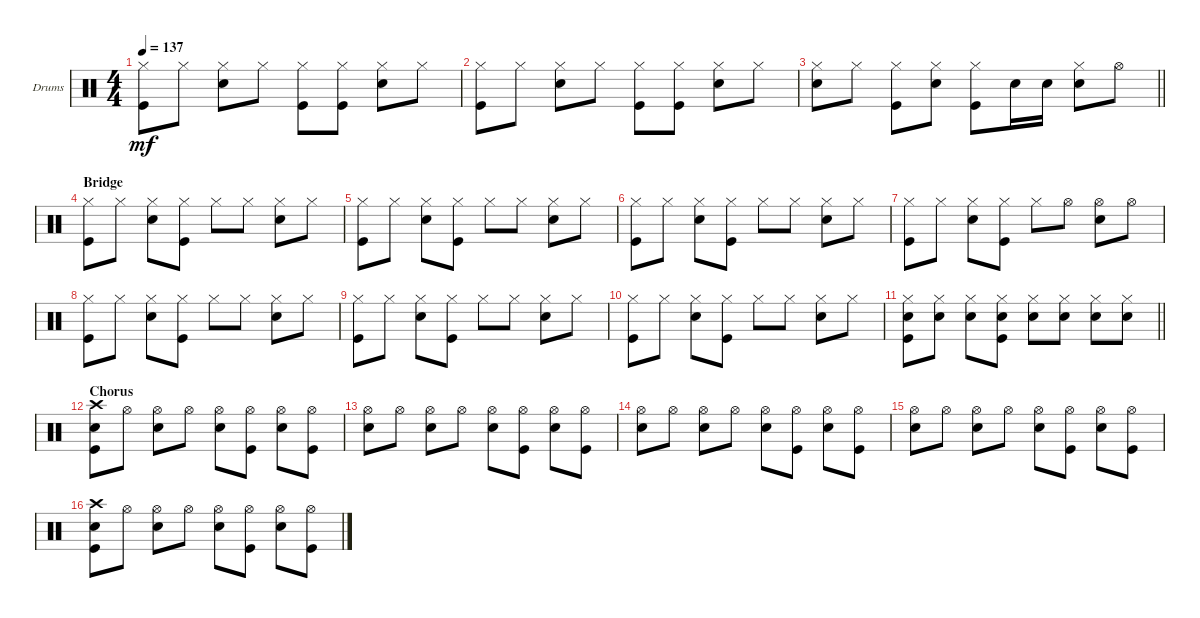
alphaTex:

\bracketExtendMode groupsimilarinstruments
\firstSystemTrackNameOrientation horizontal
\otherSystemsTrackNameOrientation horizontal
\track ("Drumkit" "Drums") {instrument percussion}
\staff {score}
\articulation defaults
\ts (4 4)
\tempo 137
\clef neutral
\scale
0.333333
\ks c
("Kick (hit)" "Hi-Hat (closed)").8{dy mf} "Hi-Hat (closed)".8 ("Snare (hit) 2" "Hi-Hat (closed)").8 "Hi-Hat (closed)".8 ("Hi-Hat (closed)" "Kick (hit)").8 ("Hi-Hat (closed)" "Kick (hit)").8 ("Hi-Hat (closed)" "Snare (hit) 2").8 "Hi-Hat (closed)".8 |
\scale
0.333333 ("Kick (hit)" "Hi-Hat (closed)").8 "Hi-Hat (closed)".8 ("Snare (hit) 2" "Hi-Hat (closed)").8 "Hi-Hat (closed)".8 ("Hi-Hat (closed)" "Kick (hit)").8 ("Hi-Hat (closed)" "Kick (hit)").8 ("Hi-Hat (closed)" "Snare (hit) 2").8 "Hi-Hat (closed)".8 |
\scale
0.333333
\barLineRight lightlight
("Snare (hit) 2" "Hi-Hat (closed)").8 "Hi-Hat (closed)".8 ("Kick (hit)" "Hi-Hat (closed)").8 ("Snare (hit) 2" "Hi-Hat (closed)").8 ("Kick (hit)" "Hi-Hat (closed)").8 "Snare (hit) 2".16 "Snare (hit) 2".16 ("Snare (hit) 2" "Hi-Hat (closed)").8 "Hi-Hat (open)".8 |
\section ("" "Bridge")
\scale
0.333333 ("Kick (hit)" "Hi-Hat (closed)").8 "Hi-Hat (closed)".8 ("Hi-Hat (closed)" "Snare (hit) 2").8 ("Hi-Hat (closed)" "Kick (hit)").8 "Hi-Hat (closed)".8 "Hi-Hat (closed)".8 ("Hi-Hat (closed)" "Snare (hit) 2").8 "Hi-Hat (closed)".8 |
\scale
0.333333 ("Kick (hit)" "Hi-Hat (closed)").8 "Hi-Hat (closed)".8 ("Hi-Hat (closed)" "Snare (hit) 2").8 ("Hi-Hat (closed)" "Kick (hit)").8 "Hi-Hat (closed)".8 "Hi-Hat (closed)".8 ("Hi-Hat (closed)" "Snare (hit) 2").8 "Hi-Hat (closed)".8 |
\scale
0.333333 ("Kick (hit)" "Hi-Hat (closed)").8 "Hi-Hat (closed)".8 ("Hi-Hat (closed)" "Snare (hit) 2").8 ("Hi-Hat (closed)" "Kick (hit)").8 "Hi-Hat (closed)".8 "Hi-Hat (closed)".8 ("Hi-Hat (closed)" "Snare (hit) 2").8 "Hi-Hat (closed)".8 |
\scale
0.333333 ("Kick (hit)" "Hi-Hat (closed)").8 "Hi-Hat (closed)".8 ("Hi-Hat (closed)" "Snare (hit) 2").8 ("Hi-Hat (closed)" "Kick (hit)").8 "Hi-Hat (closed)".8 "Hi-Hat (open)".8 ("Hi-Hat (open)" "Snare (hit) 2").8 "Hi-Hat (open)".8 |
\scale
0.333333 ("Kick (hit)" "Hi-Hat (closed)").8 "Hi-Hat (closed)".8 ("Hi-Hat (closed)" "Snare (hit) 2").8 ("Hi-Hat (closed)" "Kick (hit)").8 "Hi-Hat (closed)".8 "Hi-Hat (closed)".8 ("Hi-Hat (closed)" "Snare (hit) 2").8 "Hi-Hat (closed)".8 |
\scale
0.333333 ("Kick (hit)" "Hi-Hat (closed)").8 "Hi-Hat (closed)".8 ("Hi-Hat (closed)" "Snare (hit) 2").8 ("Hi-Hat (closed)" "Kick (hit)").8 "Hi-Hat (closed)".8 "Hi-Hat (closed)".8 ("Hi-Hat (closed)" "Snare (hit) 2").8 "Hi-Hat (closed)".8 |
\scale
0.333333 ("Kick (hit)" "Hi-Hat (closed)").8 "Hi-Hat (closed)".8 ("Hi-Hat (closed)" "Snare (hit) 2").8 ("Hi-Hat (closed)" "Kick (hit)").8 "Hi-Hat (closed)".8 "Hi-Hat (closed)".8 ("Hi-Hat (closed)" "Snare (hit) 2").8 "Hi-Hat (closed)".8 |
\scale
0.333333
\barLineRight lightlight
("Kick (hit)" "Hi-Hat (closed)" "Snare (hit) 2").8 ("Hi-Hat (closed)" "Snare (hit) 2").8 ("Hi-Hat (closed)" "Snare (hit) 2").8 ("Hi-Hat (closed)" "Kick (hit)" "Snare (hit) 2").8 ("Hi-Hat (closed)" "Snare (hit) 2").8 ("Hi-Hat (closed)" "Snare (hit) 2").8 ("Hi-Hat (closed)" "Snare (hit) 2").8 ("Hi-Hat (closed)" "Snare (hit) 2").8 |
\section ("" "Chorus")
\scale
0.333333 ("Crash high (hit)" "Kick (hit)" "Snare (hit) 2").8 "Hi-Hat (open)".8 ("Hi-Hat (open)" "Snare (hit) 2").8 "Hi-Hat (open)".8 ("Hi-Hat (open)" "Snare (hit) 2").8 ("Hi-Hat (open)" "Kick (hit)").8 ("Hi-Hat (open)" "Snare (hit) 2").8 ("Hi-Hat (open)" "Kick (hit)").8 |
\scale
0.333333 ("Hi-Hat (open)" "Snare (hit) 2").8 "Hi-Hat (open)".8 ("Hi-Hat (open)" "Snare (hit) 2").8 "Hi-Hat (open)".8 ("Hi-Hat (open)" "Snare (hit) 2").8 ("Hi-Hat (open)" "Kick (hit)").8 ("Hi-Hat (open)" "Snare (hit) 2").8 ("Hi-Hat (open)" "Kick (hit)").8 |
\scale
0.333333 ("Hi-Hat (open)" "Snare (hit) 2").8 "Hi-Hat (open)".8 ("Hi-Hat (open)" "Snare (hit) 2").8 "Hi-Hat (open)".8 ("Hi-Hat (open)" "Snare (hit) 2").8 ("Hi-Hat (open)" "Kick (hit)").8 ("Hi-Hat (open)" "Snare (hit) 2").8 ("Hi-Hat (open)" "Kick (hit)").8 |
\scale
0.333333 ("Hi-Hat (open)" "Snare (hit) 2").8 "Hi-Hat (open)".8 ("Hi-Hat (open)" "Snare (hit) 2").8 "Hi-Hat (open)".8 ("Hi-Hat (open)" "Snare (hit) 2").8 ("Hi-Hat (open)" "Kick (hit)").8 ("Hi-Hat (open)" "Snare (hit) 2").8 ("Hi-Hat (open)" "Kick (hit)").8 |
\scale
0.333333 ("Crash high (hit)" "Kick (hit)" "Snare (hit) 2").8 "Hi-Hat (open)".8 ("Hi-Hat (open)" "Snare (hit) 2").8 "Hi-Hat (open)".8 ("Hi-Hat (open)" "Snare (hit) 2").8 ("Hi-Hat (open)" "Kick (hit)").8 ("Hi-Hat (open)" "Snare (hit) 2").8 ("Hi-Hat (open)" "Kick (hit)").8
